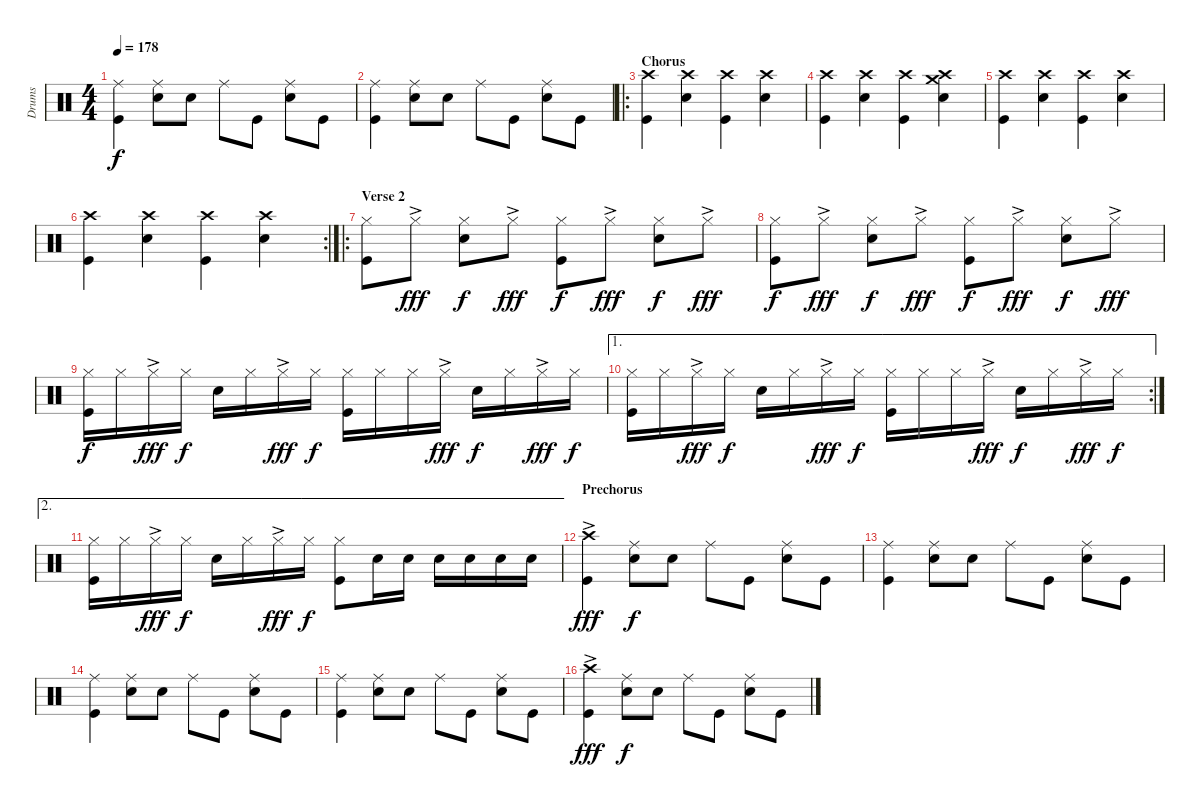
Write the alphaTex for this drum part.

\track ("Drums" "Drums") {instrument percussion}
\staff {score}
\articulation defaults
\ts (4 4)
\tempo 178
\clef neutral
\ks c
("Ride (middle)" "Kick (hit)").4{dy f} ("Ride (middle)" "Snare (hit) 2").8 "Snare (hit) 2".8 "Ride (middle)".8 "Kick (hit)".8 ("Ride (middle)" "Snare (hit) 2").8 "Kick (hit)".8 |
("Ride (middle)" "Kick (hit)").4 ("Ride (middle)" "Snare (hit) 2").8 "Snare (hit) 2".8 "Ride (middle)".8 "Kick (hit)".8 ("Ride (middle)" "Snare (hit) 2").8 "Kick (hit)".8 |
\ro
\section ("" "Chorus")
("Crash high (hit)" "Kick (hit)").4 ("Crash high (hit)" "Snare (hit) 2").4 ("Crash high (hit)" "Kick (hit)").4 ("Crash high (hit)" "Snare (hit) 2").4 |
("Crash high (hit)" "Kick (hit)").4 ("Crash high (hit)" "Snare (hit) 2").4 ("Crash high (hit)" "Kick (hit)").4 ("Crash high (hit)" "Crash medium (hit)" "Snare (hit) 2").4 |
("Crash high (hit)" "Kick (hit)").4 ("Crash high (hit)" "Snare (hit) 2").4 ("Crash high (hit)" "Kick (hit)").4 ("Crash high (hit)" "Snare (hit) 2").4 |
\rc 2
("Crash high (hit)" "Kick (hit)").4 ("Crash high (hit)" "Snare (hit) 2").4 ("Crash high (hit)" "Kick (hit)").4 ("Crash high (hit)" "Snare (hit) 2").4 |
\ro
\section ("" "Verse 2")
("Hi-Hat (closed)" "Kick (hit)").8 "Hi-Hat (closed)"{ac}.8{dy fff} ("Hi-Hat (closed)" "Snare (hit) 2").8{dy f} "Hi-Hat (closed)"{ac}.8{dy fff} ("Hi-Hat (closed)" "Kick (hit)").8{dy f} "Hi-Hat (closed)"{ac}.8{dy fff} ("Hi-Hat (closed)" "Snare (hit) 2").8{dy f} "Hi-Hat (closed)"{ac}.8{dy fff} |
("Hi-Hat (closed)" "Kick (hit)").8{dy f} "Hi-Hat (closed)"{ac}.8{dy fff} ("Hi-Hat (closed)" "Snare (hit) 2").8{dy f} "Hi-Hat (closed)"{ac}.8{dy fff} ("Hi-Hat (closed)" "Kick (hit)").8{dy f} "Hi-Hat (closed)"{ac}.8{dy fff} ("Hi-Hat (closed)" "Snare (hit) 2").8{dy f} "Hi-Hat (closed)"{ac}.8{dy fff} |
("Hi-Hat (closed)" "Kick (hit)").16{dy f} "Hi-Hat (closed)".16 "Hi-Hat (closed)"{ac}.16{dy fff} "Hi-Hat (closed)".16{dy f} "Snare (hit) 2".16 "Hi-Hat (closed)".16 "Hi-Hat (closed)"{ac}.16{dy fff} "Hi-Hat (closed)".16{dy f} ("Hi-Hat (closed)" "Kick (hit)").16 "Hi-Hat (closed)".16 "Hi-Hat (closed)".16 "Hi-Hat (closed)"{ac}.16{dy fff} "Snare (hit) 2".16{dy f} "Hi-Hat (closed)".16 "Hi-Hat (closed)"{ac}.16{dy fff} "Hi-Hat (closed)".16{dy f} |
\ae 1
\rc 2
("Hi-Hat (closed)" "Kick (hit)").16 "Hi-Hat (closed)".16 "Hi-Hat (closed)"{ac}.16{dy fff} "Hi-Hat (closed)".16{dy f} "Snare (hit) 2".16 "Hi-Hat (closed)".16 "Hi-Hat (closed)"{ac}.16{dy fff} "Hi-Hat (closed)".16{dy f} ("Hi-Hat (closed)" "Kick (hit)").16 "Hi-Hat (closed)".16 "Hi-Hat (closed)".16 "Hi-Hat (closed)"{ac}.16{dy fff} "Snare (hit) 2".16{dy f} "Hi-Hat (closed)".16 "Hi-Hat (closed)"{ac}.16{dy fff} "Hi-Hat (closed)".16{dy f} |
\ae 2
("Hi-Hat (closed)" "Kick (hit)").16 "Hi-Hat (closed)".16 "Hi-Hat (closed)"{ac}.16{dy fff} "Hi-Hat (closed)".16{dy f} "Snare (hit) 2".16 "Hi-Hat (closed)".16 "Hi-Hat (closed)"{ac}.16{dy fff} "Hi-Hat (closed)".16{dy f} ("Hi-Hat (closed)" "Kick (hit)").8 "Snare (hit) 2".16 "Snare (hit) 2".16 "Snare (hit) 2".16 "Snare (hit) 2".16 "Snare (hit) 2".16 "Snare (hit) 2".16 |
\section ("" "Prechorus")
("Crash high (hit)"{ac} "Kick (hit)"{ac}).4{dy fff} ("Ride (middle)" "Snare (hit) 2").8{dy f} "Snare (hit) 2".8 "Ride (middle)".8 "Kick (hit)".8 ("Ride (middle)" "Snare (hit) 2").8 "Kick (hit)".8 |
("Ride (middle)" "Kick (hit)").4 ("Ride (middle)" "Snare (hit) 2").8 "Snare (hit) 2".8 "Ride (middle)".8 "Kick (hit)".8 ("Ride (middle)" "Snare (hit) 2").8 "Kick (hit)".8 |
("Ride (middle)" "Kick (hit)").4 ("Ride (middle)" "Snare (hit) 2").8 "Snare (hit) 2".8 "Ride (middle)".8 "Kick (hit)".8 ("Ride (middle)" "Snare (hit) 2").8 "Kick (hit)".8 |
("Ride (middle)" "Kick (hit)").4 ("Ride (middle)" "Snare (hit) 2").8 "Snare (hit) 2".8 "Ride (middle)".8 "Kick (hit)".8 ("Ride (middle)" "Snare (hit) 2").8 "Kick (hit)".8 |
("Crash high (hit)"{ac} "Kick (hit)"{ac}).4{dy fff} ("Ride (middle)" "Snare (hit) 2").8{dy f} "Snare (hit) 2".8 "Ride (middle)".8 "Kick (hit)".8 ("Ride (middle)" "Snare (hit) 2").8 "Kick (hit)".8
